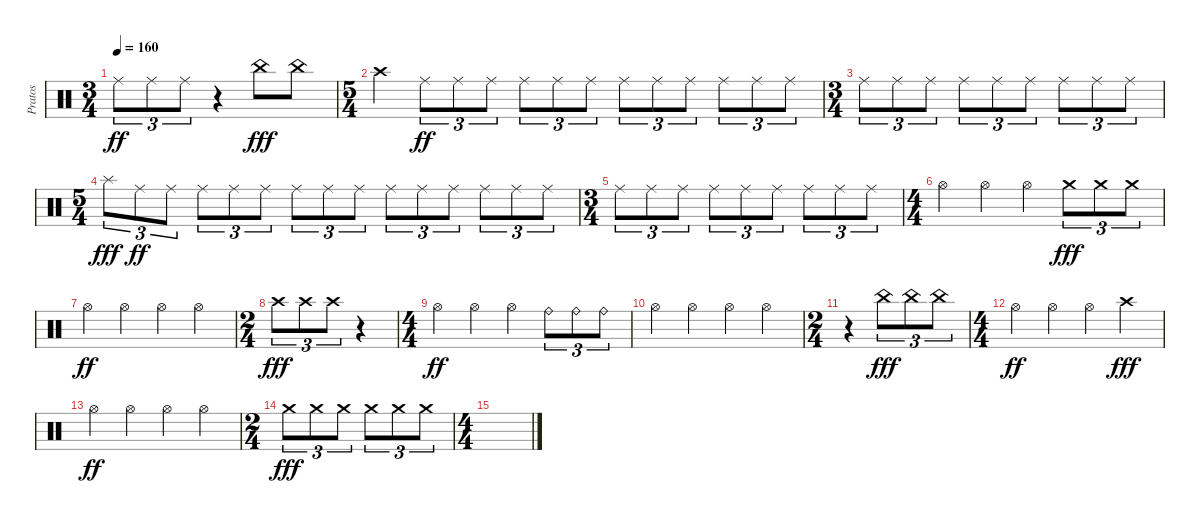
\track ("Pratos" "Pratos") {instrument percussion}
\staff {score}
\articulation defaults
\ts (3 4)
\tempo 160
\clef neutral
\ks c "Ride (middle)".8{tu (3 2) dy ff} "Ride (middle)".8{tu (3 2)} "Ride (middle)".8{tu (3 2)}
r.4 "China (hit)".8{dy fff} "China (hit)".8 |
\ts (5 4)
"Crash high (hit)".4 "Ride (middle)".8{tu (3 2) dy ff} "Ride (middle)".8{tu (3 2)} "Ride (middle)".8{tu (3 2)} "Ride (middle)".8{tu (3 2)} "Ride (middle)".8{tu (3 2)} "Ride (middle)".8{tu (3 2)} "Ride (middle)".8{tu (3 2)} "Ride (middle)".8{tu (3 2)} "Ride (middle)".8{tu (3 2)} "Ride (middle)".8{tu (3 2)} "Ride (middle)".8{tu (3 2)} "Ride (middle)".8{tu (3 2)} |
\ts (3 4)
"Ride (middle)".8{tu (3 2)} "Ride (middle)".8{tu (3 2)} "Ride (middle)".8{tu (3 2)} "Ride (middle)".8{tu (3 2)} "Ride (middle)".8{tu (3 2)} "Ride (middle)".8{tu (3 2)} "Ride (middle)".8{tu (3 2)} "Ride (middle)".8{tu (3 2)} "Ride (middle)".8{tu (3 2)} |
\ts (5 4)
"Splash (hit)".8{tu (3 2) dy fff} "Ride (middle)".8{tu (3 2) dy ff} "Ride (middle)".8{tu (3 2)} "Ride (middle)".8{tu (3 2)} "Ride (middle)".8{tu (3 2)} "Ride (middle)".8{tu (3 2)} "Ride (middle)".8{tu (3 2)} "Ride (middle)".8{tu (3 2)} "Ride (middle)".8{tu (3 2)} "Ride (middle)".8{tu (3 2)} "Ride (middle)".8{tu (3 2)} "Ride (middle)".8{tu (3 2)} "Ride (middle)".8{tu (3 2)} "Ride (middle)".8{tu (3 2)} "Ride (middle)".8{tu (3 2)} |
\ts (3 4)
"Ride (middle)".8{tu (3 2)} "Ride (middle)".8{tu (3 2)} "Ride (middle)".8{tu (3 2)} "Ride (middle)".8{tu (3 2)} "Ride (middle)".8{tu (3 2)} "Ride (middle)".8{tu (3 2)} "Ride (middle)".8{tu (3 2)} "Ride (middle)".8{tu (3 2)} "Ride (middle)".8{tu (3 2)} |
\ts (4 4)
"Hi-Hat (open)".4 "Hi-Hat (open)".4 "Hi-Hat (open)".4 "Crash medium (hit)".8{tu (3 2) dy fff} "Crash medium (hit)".8{tu (3 2)} "Crash medium (hit)".8{tu (3 2)} |
"Hi-Hat (open)".4{dy ff} "Hi-Hat (open)".4 "Hi-Hat (open)".4 "Hi-Hat (open)".4 |
\ts (2 4)
"Crash high (hit)".8{tu (3 2) dy fff} "Crash high (hit)".8{tu (3 2)} "Crash high (hit)".8{tu (3 2)} r.4 |
\ts (4 4)
"Hi-Hat (open)".4{dy ff} "Hi-Hat (open)".4 "Hi-Hat (open)".4 "Ride (bell)".8{tu (3 2)} "Ride (bell)".8{tu (3 2)} "Ride (bell)".8{tu (3 2)} |
"Hi-Hat (open)".4 "Hi-Hat (open)".4 "Hi-Hat (open)".4 "Hi-Hat (open)".4 |
\ts (2 4)
r.4 "China (hit)".8{tu (3 2) dy fff} "China (hit)".8{tu (3 2)} "China (hit)".8{tu (3 2)} |
\ts (4 4)
"Hi-Hat (open)".4{dy ff} "Hi-Hat (open)".4 "Hi-Hat (open)".4 "Crash high (hit)".4{dy fff} |
"Hi-Hat (open)".4{dy ff} "Hi-Hat (open)".4 "Hi-Hat (open)".4 "Hi-Hat (open)".4 |
\ts (2 4)
"Crash medium (hit)".8{tu (3 2) dy fff} "Crash medium (hit)".8{tu (3 2)} "Crash medium (hit)".8{tu (3 2)} "Crash medium (hit)".8{tu (3 2)} "Crash medium (hit)".8{tu (3 2)} "Crash medium (hit)".8{tu (3 2)} |
\ts (4 4)
